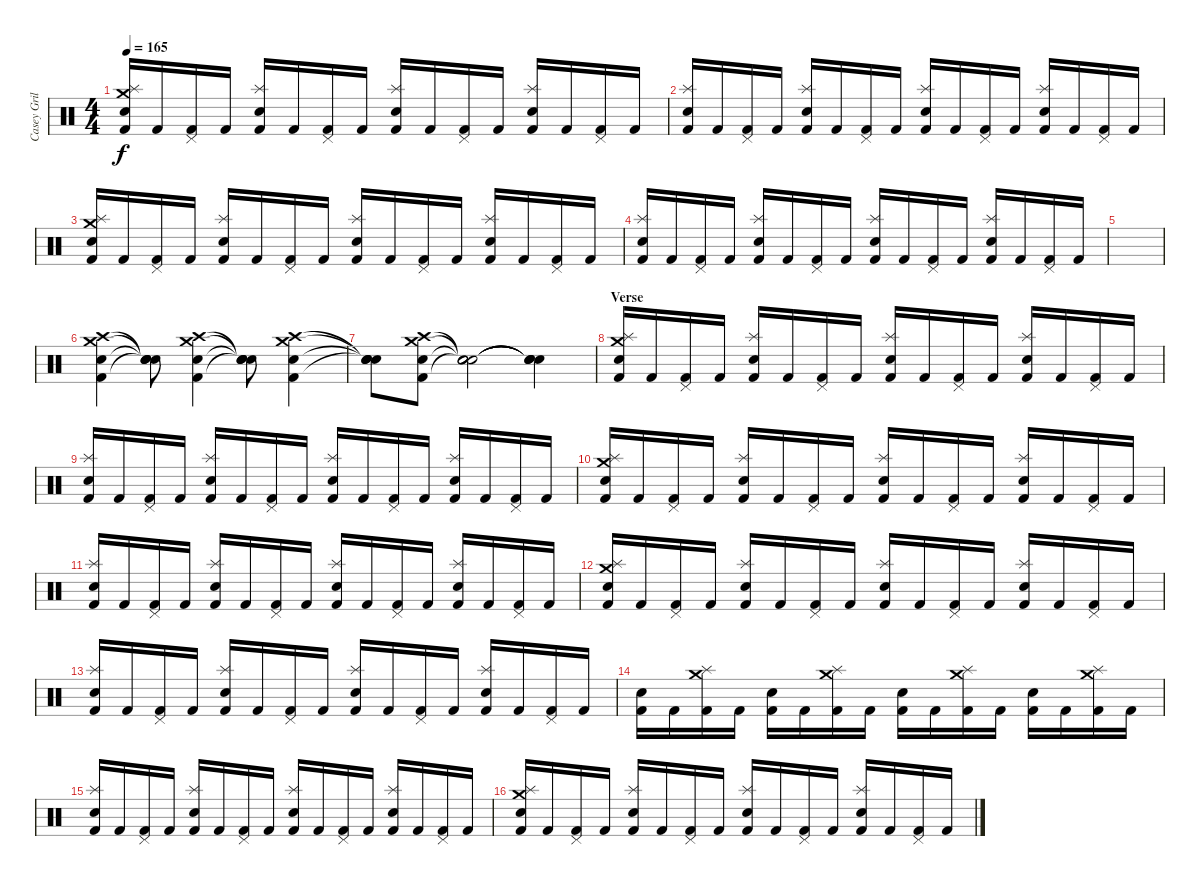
\track ("Casey Grillo" "Casey Gril") {instrument percussion}
\staff {score}
\articulation defaults
\ts (4 4)
\tempo 165
\clef neutral
\ks c
("Electric Snare (hit)" "Splash (hit)" "Crash medium (hit)" "Kick (hit) 2").16{dy f} "Kick (hit) 2".16 ("Pedal Hi-Hat (hit)" "Kick (hit) 2").16 "Kick (hit) 2".16 ("Electric Snare (hit)" "Splash (hit)" "Kick (hit) 2").16 "Kick (hit) 2".16 ("Pedal Hi-Hat (hit)" "Kick (hit) 2").16 "Kick (hit) 2".16 ("Electric Snare (hit)" "Splash (hit)" "Kick (hit) 2").16 "Kick (hit) 2".16 ("Pedal Hi-Hat (hit)" "Kick (hit) 2").16 "Kick (hit) 2".16 ("Electric Snare (hit)" "Splash (hit)" "Kick (hit) 2").16 "Kick (hit) 2".16 ("Pedal Hi-Hat (hit)" "Kick (hit) 2").16 "Kick (hit) 2".16 |
("Electric Snare (hit)" "Splash (hit)" "Kick (hit) 2").16 "Kick (hit) 2".16 ("Pedal Hi-Hat (hit)" "Kick (hit) 2").16 "Kick (hit) 2".16 ("Electric Snare (hit)" "Splash (hit)" "Kick (hit) 2").16 "Kick (hit) 2".16 ("Pedal Hi-Hat (hit)" "Kick (hit) 2").16 "Kick (hit) 2".16 ("Electric Snare (hit)" "Splash (hit)" "Kick (hit) 2").16 "Kick (hit) 2".16 ("Pedal Hi-Hat (hit)" "Kick (hit) 2").16 "Kick (hit) 2".16 ("Electric Snare (hit)" "Splash (hit)" "Kick (hit) 2").16 "Kick (hit) 2".16 ("Pedal Hi-Hat (hit)" "Kick (hit) 2").16 "Kick (hit) 2".16 |
("Electric Snare (hit)" "Splash (hit)" "Crash medium (hit)" "Kick (hit) 2").16 "Kick (hit) 2".16 ("Pedal Hi-Hat (hit)" "Kick (hit) 2").16 "Kick (hit) 2".16 ("Electric Snare (hit)" "Splash (hit)" "Kick (hit) 2").16 "Kick (hit) 2".16 ("Pedal Hi-Hat (hit)" "Kick (hit) 2").16 "Kick (hit) 2".16 ("Electric Snare (hit)" "Splash (hit)" "Kick (hit) 2").16 "Kick (hit) 2".16 ("Pedal Hi-Hat (hit)" "Kick (hit) 2").16 "Kick (hit) 2".16 ("Electric Snare (hit)" "Splash (hit)" "Kick (hit) 2").16 "Kick (hit) 2".16 ("Pedal Hi-Hat (hit)" "Kick (hit) 2").16 "Kick (hit) 2".16 |
("Electric Snare (hit)" "Splash (hit)" "Kick (hit) 2").16 "Kick (hit) 2".16 ("Pedal Hi-Hat (hit)" "Kick (hit) 2").16 "Kick (hit) 2".16 ("Electric Snare (hit)" "Splash (hit)" "Kick (hit) 2").16 "Kick (hit) 2".16 ("Pedal Hi-Hat (hit)" "Kick (hit) 2").16 "Kick (hit) 2".16 ("Electric Snare (hit)" "Splash (hit)" "Kick (hit) 2").16 "Kick (hit) 2".16 ("Pedal Hi-Hat (hit)" "Kick (hit) 2").16 "Kick (hit) 2".16 ("Electric Snare (hit)" "Splash (hit)" "Kick (hit) 2").16 "Kick (hit) 2".16 ("Pedal Hi-Hat (hit)" "Kick (hit) 2").16 "Kick (hit) 2".16 |
|
("Electric Snare (hit)" "Crash high (hit)" "Crash medium (hit)" "Kick (hit) 2").4 ("Snare (hit)"{t} "Snare (hit)"{t} "Snare (hit)"{t} "Snare (hit)"{t}).8 ("Electric Snare (hit)" "Crash high (hit)" "Crash medium (hit)" "Kick (hit) 2").4 ("Snare (hit)"{t} "Snare (hit)"{t} "Snare (hit)"{t} "Snare (hit)"{t}).8 ("Electric Snare (hit)" "Crash high (hit)" "Crash medium (hit)" "Kick (hit) 2").4 |
("Snare (hit)"{t} "Snare (hit)"{t} "Snare (hit)"{t} "Snare (hit)"{t}).8 ("Electric Snare (hit)" "Crash high (hit)" "Crash medium (hit)" "Kick (hit) 2").8 ("Snare (hit)"{t} "Snare (hit)"{t} "Snare (hit)"{t} "Snare (hit)"{t}).2 ("Snare (hit)"{t} "Snare (hit)"{t} "Snare (hit)"{t} "Snare (hit)"{t}).4 |
\section ("" "Verse")
("Electric Snare (hit)" "Splash (hit)" "Crash medium (hit)" "Kick (hit) 2").16 "Kick (hit) 2".16 ("Pedal Hi-Hat (hit)" "Kick (hit) 2").16 "Kick (hit) 2".16 ("Electric Snare (hit)" "Splash (hit)" "Kick (hit) 2").16 "Kick (hit) 2".16 ("Pedal Hi-Hat (hit)" "Kick (hit) 2").16 "Kick (hit) 2".16 ("Electric Snare (hit)" "Splash (hit)" "Kick (hit) 2").16 "Kick (hit) 2".16 ("Pedal Hi-Hat (hit)" "Kick (hit) 2").16 "Kick (hit) 2".16 ("Electric Snare (hit)" "Splash (hit)" "Kick (hit) 2").16 "Kick (hit) 2".16 ("Pedal Hi-Hat (hit)" "Kick (hit) 2").16 "Kick (hit) 2".16 |
("Electric Snare (hit)" "Splash (hit)" "Kick (hit) 2").16 "Kick (hit) 2".16 ("Pedal Hi-Hat (hit)" "Kick (hit) 2").16 "Kick (hit) 2".16 ("Electric Snare (hit)" "Splash (hit)" "Kick (hit) 2").16 "Kick (hit) 2".16 ("Pedal Hi-Hat (hit)" "Kick (hit) 2").16 "Kick (hit) 2".16 ("Electric Snare (hit)" "Splash (hit)" "Kick (hit) 2").16 "Kick (hit) 2".16 ("Pedal Hi-Hat (hit)" "Kick (hit) 2").16 "Kick (hit) 2".16 ("Electric Snare (hit)" "Splash (hit)" "Kick (hit) 2").16 "Kick (hit) 2".16 ("Pedal Hi-Hat (hit)" "Kick (hit) 2").16 "Kick (hit) 2".16 |
("Electric Snare (hit)" "Splash (hit)" "Crash medium (hit)" "Kick (hit) 2").16 "Kick (hit) 2".16 ("Pedal Hi-Hat (hit)" "Kick (hit) 2").16 "Kick (hit) 2".16 ("Electric Snare (hit)" "Splash (hit)" "Kick (hit) 2").16 "Kick (hit) 2".16 ("Pedal Hi-Hat (hit)" "Kick (hit) 2").16 "Kick (hit) 2".16 ("Electric Snare (hit)" "Splash (hit)" "Kick (hit) 2").16 "Kick (hit) 2".16 ("Pedal Hi-Hat (hit)" "Kick (hit) 2").16 "Kick (hit) 2".16 ("Electric Snare (hit)" "Splash (hit)" "Kick (hit) 2").16 "Kick (hit) 2".16 ("Pedal Hi-Hat (hit)" "Kick (hit) 2").16 "Kick (hit) 2".16 |
("Electric Snare (hit)" "Splash (hit)" "Kick (hit) 2").16 "Kick (hit) 2".16 ("Pedal Hi-Hat (hit)" "Kick (hit) 2").16 "Kick (hit) 2".16 ("Electric Snare (hit)" "Splash (hit)" "Kick (hit) 2").16 "Kick (hit) 2".16 ("Pedal Hi-Hat (hit)" "Kick (hit) 2").16 "Kick (hit) 2".16 ("Electric Snare (hit)" "Splash (hit)" "Kick (hit) 2").16 "Kick (hit) 2".16 ("Pedal Hi-Hat (hit)" "Kick (hit) 2").16 "Kick (hit) 2".16 ("Electric Snare (hit)" "Splash (hit)" "Kick (hit) 2").16 "Kick (hit) 2".16 ("Pedal Hi-Hat (hit)" "Kick (hit) 2").16 "Kick (hit) 2".16 |
("Electric Snare (hit)" "Splash (hit)" "Crash medium (hit)" "Kick (hit) 2").16 "Kick (hit) 2".16 ("Pedal Hi-Hat (hit)" "Kick (hit) 2").16 "Kick (hit) 2".16 ("Electric Snare (hit)" "Splash (hit)" "Kick (hit) 2").16 "Kick (hit) 2".16 ("Pedal Hi-Hat (hit)" "Kick (hit) 2").16 "Kick (hit) 2".16 ("Electric Snare (hit)" "Splash (hit)" "Kick (hit) 2").16 "Kick (hit) 2".16 ("Pedal Hi-Hat (hit)" "Kick (hit) 2").16 "Kick (hit) 2".16 ("Electric Snare (hit)" "Splash (hit)" "Kick (hit) 2").16 "Kick (hit) 2".16 ("Pedal Hi-Hat (hit)" "Kick (hit) 2").16 "Kick (hit) 2".16 |
("Electric Snare (hit)" "Splash (hit)" "Kick (hit) 2").16 "Kick (hit) 2".16 ("Pedal Hi-Hat (hit)" "Kick (hit) 2").16 "Kick (hit) 2".16 ("Electric Snare (hit)" "Splash (hit)" "Kick (hit) 2").16 "Kick (hit) 2".16 ("Pedal Hi-Hat (hit)" "Kick (hit) 2").16 "Kick (hit) 2".16 ("Electric Snare (hit)" "Splash (hit)" "Kick (hit) 2").16 "Kick (hit) 2".16 ("Pedal Hi-Hat (hit)" "Kick (hit) 2").16 "Kick (hit) 2".16 ("Electric Snare (hit)" "Splash (hit)" "Kick (hit) 2").16 "Kick (hit) 2".16 ("Pedal Hi-Hat (hit)" "Kick (hit) 2").16 "Kick (hit) 2".16 |
("Electric Snare (hit)" "Kick (hit) 2").16 "Kick (hit) 2".16 ("Crash medium (hit)" "Splash (hit)" "Kick (hit) 2").16 "Kick (hit) 2".16 ("Electric Snare (hit)" "Kick (hit) 2").16 "Kick (hit) 2".16 ("Splash (hit)" "Crash medium (hit)" "Kick (hit) 2").16 "Kick (hit) 2".16 ("Electric Snare (hit)" "Kick (hit) 2").16 "Kick (hit) 2".16 ("Splash (hit)" "Crash medium (hit)" "Kick (hit) 2").16 "Kick (hit) 2".16 ("Electric Snare (hit)" "Kick (hit) 2").16 "Kick (hit) 2".16 ("Crash medium (hit)" "Splash (hit)" "Kick (hit) 2").16 "Kick (hit) 2".16 |
("Electric Snare (hit)" "Splash (hit)" "Kick (hit) 2").16 "Kick (hit) 2".16 ("Pedal Hi-Hat (hit)" "Kick (hit) 2").16 "Kick (hit) 2".16 ("Electric Snare (hit)" "Splash (hit)" "Kick (hit) 2").16 "Kick (hit) 2".16 ("Pedal Hi-Hat (hit)" "Kick (hit) 2").16 "Kick (hit) 2".16 ("Electric Snare (hit)" "Splash (hit)" "Kick (hit) 2").16 "Kick (hit) 2".16 ("Pedal Hi-Hat (hit)" "Kick (hit) 2").16 "Kick (hit) 2".16 ("Electric Snare (hit)" "Splash (hit)" "Kick (hit) 2").16 "Kick (hit) 2".16 ("Pedal Hi-Hat (hit)" "Kick (hit) 2").16 "Kick (hit) 2".16 |
("Electric Snare (hit)" "Splash (hit)" "Crash medium (hit)" "Kick (hit) 2").16 "Kick (hit) 2".16 ("Pedal Hi-Hat (hit)" "Kick (hit) 2").16 "Kick (hit) 2".16 ("Electric Snare (hit)" "Splash (hit)" "Kick (hit) 2").16 "Kick (hit) 2".16 ("Pedal Hi-Hat (hit)" "Kick (hit) 2").16 "Kick (hit) 2".16 ("Electric Snare (hit)" "Splash (hit)" "Kick (hit) 2").16 "Kick (hit) 2".16 ("Pedal Hi-Hat (hit)" "Kick (hit) 2").16 "Kick (hit) 2".16 ("Electric Snare (hit)" "Splash (hit)" "Kick (hit) 2").16 "Kick (hit) 2".16 ("Pedal Hi-Hat (hit)" "Kick (hit) 2").16 "Kick (hit) 2".16
